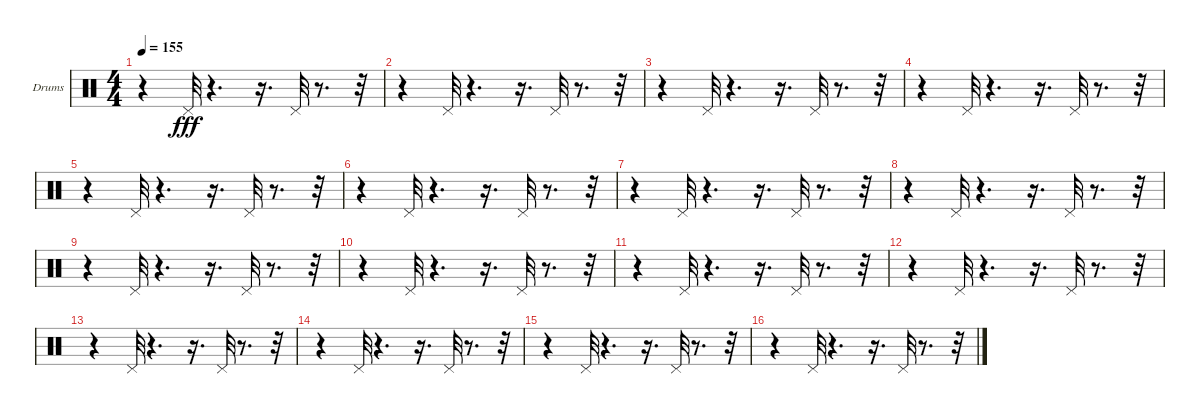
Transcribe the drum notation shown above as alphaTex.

\bracketExtendMode groupsimilarinstruments
\firstSystemTrackNameOrientation horizontal
\otherSystemsTrackNameOrientation horizontal
\track ("Е. Кулаков" "Drums") {instrument percussion}
\staff {score}
\articulation defaults
\ts (4 4)
\tempo 155
\clef neutral
\ks c
r.4{dy fff} "Pedal Hi-Hat (hit)".32 r.4{d} r.16{d} "Pedal Hi-Hat (hit)".32 r.8{d} r.32 |
r.4 "Pedal Hi-Hat (hit)".32 r.4{d} r.16{d} "Pedal Hi-Hat (hit)".32 r.8{d} r.32 |
r.4 "Pedal Hi-Hat (hit)".32 r.4{d} r.16{d} "Pedal Hi-Hat (hit)".32 r.8{d} r.32 |
r.4 "Pedal Hi-Hat (hit)".32 r.4{d} r.16{d} "Pedal Hi-Hat (hit)".32 r.8{d} r.32 |
r.4 "Pedal Hi-Hat (hit)".32 r.4{d} r.16{d} "Pedal Hi-Hat (hit)".32 r.8{d} r.32 |
r.4 "Pedal Hi-Hat (hit)".32 r.4{d} r.16{d} "Pedal Hi-Hat (hit)".32 r.8{d} r.32 |
r.4 "Pedal Hi-Hat (hit)".32 r.4{d} r.16{d} "Pedal Hi-Hat (hit)".32 r.8{d} r.32 |
r.4 "Pedal Hi-Hat (hit)".32 r.4{d} r.16{d} "Pedal Hi-Hat (hit)".32 r.8{d} r.32 |
r.4 "Pedal Hi-Hat (hit)".32 r.4{d} r.16{d} "Pedal Hi-Hat (hit)".32 r.8{d} r.32 |
r.4 "Pedal Hi-Hat (hit)".32 r.4{d} r.16{d} "Pedal Hi-Hat (hit)".32 r.8{d} r.32 |
r.4 "Pedal Hi-Hat (hit)".32 r.4{d} r.16{d} "Pedal Hi-Hat (hit)".32 r.8{d} r.32 |
r.4 "Pedal Hi-Hat (hit)".32 r.4{d} r.16{d} "Pedal Hi-Hat (hit)".32 r.8{d} r.32 |
r.4 "Pedal Hi-Hat (hit)".32 r.4{d} r.16{d} "Pedal Hi-Hat (hit)".32 r.8{d} r.32 |
r.4 "Pedal Hi-Hat (hit)".32 r.4{d} r.16{d} "Pedal Hi-Hat (hit)".32 r.8{d} r.32 |
r.4 "Pedal Hi-Hat (hit)".32 r.4{d} r.16{d} "Pedal Hi-Hat (hit)".32 r.8{d} r.32 |
r.4 "Pedal Hi-Hat (hit)".32 r.4{d} r.16{d} "Pedal Hi-Hat (hit)".32 r.8{d} r.32
